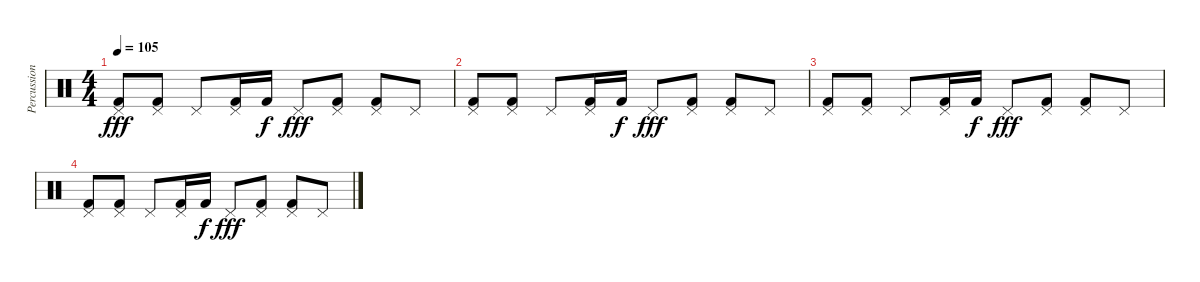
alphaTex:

\track ("Percussions" "Percussion") {instrument percussion}
\staff {score}
\articulation defaults
\ts (4 4)
\tempo 105
\clef neutral
\ks c
("Pedal Hi-Hat (hit)" "Kick (hit) 2").8{dy fff} ("Pedal Hi-Hat (hit)" "Kick (hit) 2").8 "Pedal Hi-Hat (hit)".8 ("Pedal Hi-Hat (hit)" "Kick (hit) 2").16 "Kick (hit) 2".16{dy f} "Pedal Hi-Hat (hit)".8{dy fff} ("Pedal Hi-Hat (hit)" "Kick (hit) 2").8 ("Pedal Hi-Hat (hit)" "Kick (hit) 2").8 "Pedal Hi-Hat (hit)".8 |
("Pedal Hi-Hat (hit)" "Kick (hit) 2").8 ("Pedal Hi-Hat (hit)" "Kick (hit) 2").8 "Pedal Hi-Hat (hit)".8 ("Pedal Hi-Hat (hit)" "Kick (hit) 2").16 "Kick (hit) 2".16{dy f} "Pedal Hi-Hat (hit)".8{dy fff} ("Pedal Hi-Hat (hit)" "Kick (hit) 2").8 ("Pedal Hi-Hat (hit)" "Kick (hit) 2").8 "Pedal Hi-Hat (hit)".8 |
("Pedal Hi-Hat (hit)" "Kick (hit) 2").8 ("Pedal Hi-Hat (hit)" "Kick (hit) 2").8 "Pedal Hi-Hat (hit)".8 ("Pedal Hi-Hat (hit)" "Kick (hit) 2").16 "Kick (hit) 2".16{dy f} "Pedal Hi-Hat (hit)".8{dy fff} ("Pedal Hi-Hat (hit)" "Kick (hit) 2").8 ("Pedal Hi-Hat (hit)" "Kick (hit) 2").8 "Pedal Hi-Hat (hit)".8 |
("Pedal Hi-Hat (hit)" "Kick (hit) 2").8 ("Pedal Hi-Hat (hit)" "Kick (hit) 2").8 "Pedal Hi-Hat (hit)".8 ("Pedal Hi-Hat (hit)" "Kick (hit) 2").16 "Kick (hit) 2".16{dy f} "Pedal Hi-Hat (hit)".8{dy fff} ("Pedal Hi-Hat (hit)" "Kick (hit) 2").8 ("Pedal Hi-Hat (hit)" "Kick (hit) 2").8 "Pedal Hi-Hat (hit)".8
